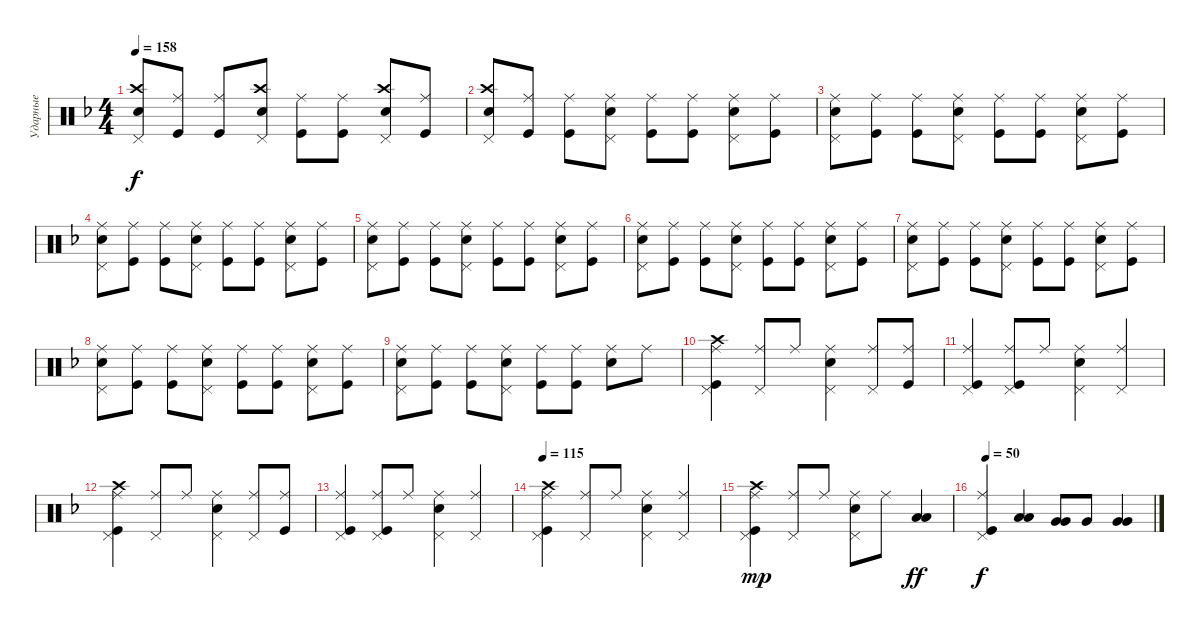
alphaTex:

\track ("Ударные" "Ударные") {instrument percussion}
\staff {score}
\articulation defaults
\ts (4 4)
\tempo 158
\clef neutral
\ks dminor
("Snare (hit) 2" "Crash high (hit)" "Pedal Hi-Hat (hit)").8{dy f} ("Kick (hit)" "Ride (middle)").8 ("Kick (hit)" "Ride (middle)").8 ("Snare (hit) 2" "Crash high (hit)" "Pedal Hi-Hat (hit)").8 ("Kick (hit)" "Ride (middle)").8 ("Kick (hit)" "Ride (middle)").8 ("Snare (hit) 2" "Crash high (hit)" "Pedal Hi-Hat (hit)").8 ("Kick (hit)" "Ride (middle)").8 |
("Snare (hit) 2" "Crash high (hit)" "Pedal Hi-Hat (hit)").8 ("Kick (hit)" "Ride (middle)").8 ("Kick (hit)" "Ride (middle)").8 ("Snare (hit) 2" "Ride (middle)" "Pedal Hi-Hat (hit)").8 ("Kick (hit)" "Ride (middle)").8 ("Kick (hit)" "Ride (middle)").8 ("Snare (hit) 2" "Ride (middle)" "Pedal Hi-Hat (hit)").8 ("Kick (hit)" "Ride (middle)").8 |
("Snare (hit) 2" "Ride (middle)" "Pedal Hi-Hat (hit)").8 ("Kick (hit)" "Ride (middle)").8 ("Kick (hit)" "Ride (middle)").8 ("Snare (hit) 2" "Ride (middle)" "Pedal Hi-Hat (hit)").8 ("Kick (hit)" "Ride (middle)").8 ("Kick (hit)" "Ride (middle)").8 ("Snare (hit) 2" "Ride (middle)" "Pedal Hi-Hat (hit)").8 ("Kick (hit)" "Ride (middle)").8 |
("Snare (hit) 2" "Ride (middle)" "Pedal Hi-Hat (hit)").8 ("Kick (hit)" "Ride (middle)").8 ("Kick (hit)" "Ride (middle)").8 ("Snare (hit) 2" "Ride (middle)" "Pedal Hi-Hat (hit)").8 ("Kick (hit)" "Ride (middle)").8 ("Kick (hit)" "Ride (middle)").8 ("Snare (hit) 2" "Ride (middle)" "Pedal Hi-Hat (hit)").8 ("Kick (hit)" "Ride (middle)").8 |
("Snare (hit) 2" "Ride (middle)" "Pedal Hi-Hat (hit)").8 ("Kick (hit)" "Ride (middle)").8 ("Kick (hit)" "Ride (middle)").8 ("Snare (hit) 2" "Ride (middle)" "Pedal Hi-Hat (hit)").8 ("Kick (hit)" "Ride (middle)").8 ("Kick (hit)" "Ride (middle)").8 ("Snare (hit) 2" "Ride (middle)" "Pedal Hi-Hat (hit)").8 ("Kick (hit)" "Ride (middle)").8 |
("Snare (hit) 2" "Ride (middle)" "Pedal Hi-Hat (hit)").8 ("Kick (hit)" "Ride (middle)").8 ("Kick (hit)" "Ride (middle)").8 ("Snare (hit) 2" "Ride (middle)" "Pedal Hi-Hat (hit)").8 ("Kick (hit)" "Ride (middle)").8 ("Kick (hit)" "Ride (middle)").8 ("Snare (hit) 2" "Ride (middle)" "Pedal Hi-Hat (hit)").8 ("Kick (hit)" "Ride (middle)").8 |
("Snare (hit) 2" "Ride (middle)" "Pedal Hi-Hat (hit)").8 ("Kick (hit)" "Ride (middle)").8 ("Kick (hit)" "Ride (middle)").8 ("Snare (hit) 2" "Ride (middle)" "Pedal Hi-Hat (hit)").8 ("Kick (hit)" "Ride (middle)").8 ("Kick (hit)" "Ride (middle)").8 ("Snare (hit) 2" "Ride (middle)" "Pedal Hi-Hat (hit)").8 ("Kick (hit)" "Ride (middle)").8 |
("Snare (hit) 2" "Ride (middle)" "Pedal Hi-Hat (hit)").8 ("Kick (hit)" "Ride (middle)").8 ("Kick (hit)" "Ride (middle)").8 ("Snare (hit) 2" "Ride (middle)" "Pedal Hi-Hat (hit)").8 ("Kick (hit)" "Ride (middle)").8 ("Kick (hit)" "Ride (middle)").8 ("Snare (hit) 2" "Ride (middle)" "Pedal Hi-Hat (hit)").8 ("Kick (hit)" "Ride (middle)").8 |
("Snare (hit) 2" "Ride (middle)" "Pedal Hi-Hat (hit)").8 ("Kick (hit)" "Ride (middle)").8 ("Kick (hit)" "Ride (middle)").8 ("Snare (hit) 2" "Ride (middle)" "Pedal Hi-Hat (hit)").8 ("Kick (hit)" "Ride (middle)").8 ("Kick (hit)" "Ride (middle)").8 ("Snare (hit) 2" "Ride (middle)").8 "Ride (middle)".8 |
("Kick (hit)" "Crash high (hit)" "Pedal Hi-Hat (hit)" "Ride (middle)").4 ("Ride (middle)" "Pedal Hi-Hat (hit)").8 "Ride (middle)".8 ("Snare (hit) 2" "Ride (middle)" "Pedal Hi-Hat (hit)").4 ("Ride (middle)" "Pedal Hi-Hat (hit)").8 ("Kick (hit)" "Ride (middle)").8 |
("Kick (hit)" "Pedal Hi-Hat (hit)" "Ride (middle)").4 ("Kick (hit)" "Pedal Hi-Hat (hit)" "Ride (middle)").8 "Ride (middle)".8 ("Snare (hit) 2" "Pedal Hi-Hat (hit)" "Ride (middle)").4 ("Ride (middle)" "Pedal Hi-Hat (hit)").4 |
("Kick (hit)" "Crash high (hit)" "Pedal Hi-Hat (hit)" "Ride (middle)").4 ("Ride (middle)" "Pedal Hi-Hat (hit)").8 "Ride (middle)".8 ("Snare (hit) 2" "Ride (middle)" "Pedal Hi-Hat (hit)").4 ("Ride (middle)" "Pedal Hi-Hat (hit)").8 ("Kick (hit)" "Ride (middle)").8 |
("Kick (hit)" "Pedal Hi-Hat (hit)" "Ride (middle)").4 ("Kick (hit)" "Pedal Hi-Hat (hit)" "Ride (middle)").8 "Ride (middle)".8 ("Snare (hit) 2" "Pedal Hi-Hat (hit)" "Ride (middle)").4 ("Ride (middle)" "Pedal Hi-Hat (hit)").4 |
\tempo 115
("Kick (hit)" "Crash high (hit)" "Pedal Hi-Hat (hit)" "Ride (middle)").4 ("Ride (middle)" "Pedal Hi-Hat (hit)").8 "Ride (middle)".8 ("Snare (hit) 2" "Ride (middle)" "Pedal Hi-Hat (hit)").4 ("Ride (middle)" "Pedal Hi-Hat (hit)").4 |
("Kick (hit)" "Crash high (hit)" "Ride (middle)" "Pedal Hi-Hat (hit)").4{dy mp} ("Ride (middle)" "Pedal Hi-Hat (hit)").8 "Ride (middle)".8 ("Snare (hit) 2" "Ride (middle)" "Pedal Hi-Hat (hit)").8 "Ride (middle)".8 ("Low Tom (hit)" "Low Tom (hit)").4{bd 120 dy ff} |
\tempo 50
("Ride (middle)" "Pedal Hi-Hat (hit)" "Kick (hit)").4{bd 120 dy f} ("Low Tom (hit)" "Low Tom (hit)").4{bd 120} ("Very Low Tom (hit)" "Very Low Tom (hit)").8{bd 240} "Very Low Tom (hit)".8 ("Very Low Tom (hit)" "Very Low Tom (hit)").4{bd 240}
